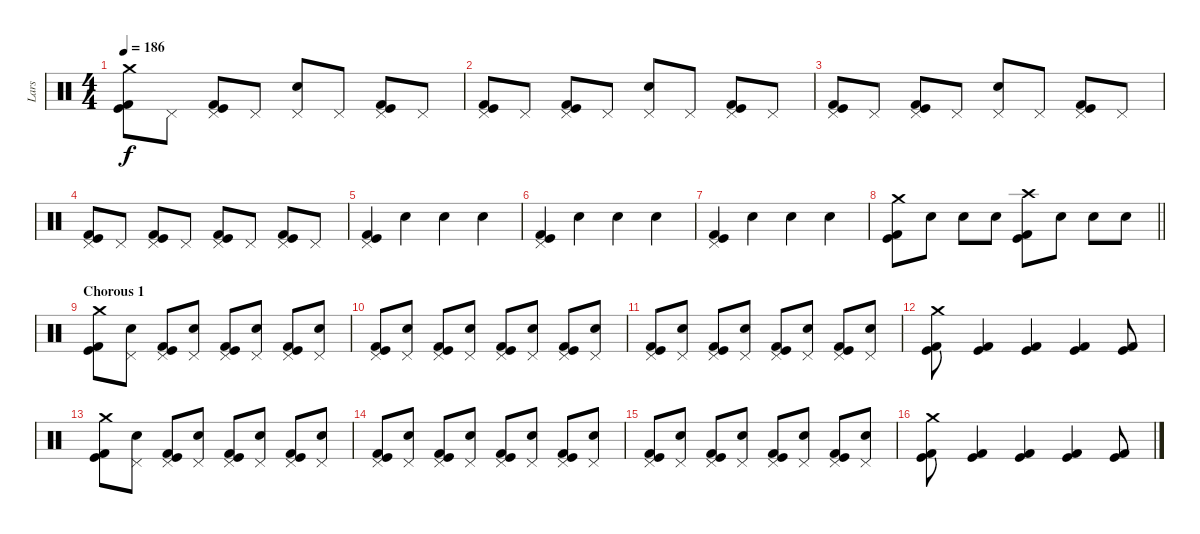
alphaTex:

\track ("Lars" "Lars") {instrument percussion}
\staff {score}
\articulation defaults
\ts (4 4)
\tempo 186
\clef neutral
\ks c
("Crash medium (hit)" "Kick (hit)" "Kick (hit) 2").8{dy f} "Pedal Hi-Hat (hit)".8 ("Pedal Hi-Hat (hit)" "Kick (hit)" "Kick (hit) 2").8 "Pedal Hi-Hat (hit)".8 ("Pedal Hi-Hat (hit)" "Electric Snare (hit)").8 "Pedal Hi-Hat (hit)".8 ("Pedal Hi-Hat (hit)" "Kick (hit)" "Kick (hit) 2").8 "Pedal Hi-Hat (hit)".8 |
("Pedal Hi-Hat (hit)" "Kick (hit)" "Kick (hit) 2").8 "Pedal Hi-Hat (hit)".8 ("Pedal Hi-Hat (hit)" "Kick (hit)" "Kick (hit) 2").8 "Pedal Hi-Hat (hit)".8 ("Pedal Hi-Hat (hit)" "Electric Snare (hit)").8 "Pedal Hi-Hat (hit)".8 ("Pedal Hi-Hat (hit)" "Kick (hit)" "Kick (hit) 2").8 "Pedal Hi-Hat (hit)".8 |
("Pedal Hi-Hat (hit)" "Kick (hit)" "Kick (hit) 2").8 "Pedal Hi-Hat (hit)".8 ("Pedal Hi-Hat (hit)" "Kick (hit)" "Kick (hit) 2").8 "Pedal Hi-Hat (hit)".8 ("Pedal Hi-Hat (hit)" "Electric Snare (hit)").8 "Pedal Hi-Hat (hit)".8 ("Pedal Hi-Hat (hit)" "Kick (hit)" "Kick (hit) 2").8 "Pedal Hi-Hat (hit)".8 |
("Pedal Hi-Hat (hit)" "Kick (hit)" "Kick (hit) 2").8 "Pedal Hi-Hat (hit)".8 ("Pedal Hi-Hat (hit)" "Kick (hit)" "Kick (hit) 2").8 "Pedal Hi-Hat (hit)".8 ("Pedal Hi-Hat (hit)" "Kick (hit)" "Kick (hit) 2").8 "Pedal Hi-Hat (hit)".8 ("Pedal Hi-Hat (hit)" "Kick (hit)" "Kick (hit) 2").8 "Pedal Hi-Hat (hit)".8 |
("Pedal Hi-Hat (hit)" "Kick (hit)" "Kick (hit) 2").4 "Electric Snare (hit)".4 "Electric Snare (hit)".4 "Electric Snare (hit)".4 |
("Pedal Hi-Hat (hit)" "Kick (hit)" "Kick (hit) 2").4 "Electric Snare (hit)".4 "Electric Snare (hit)".4 "Electric Snare (hit)".4 |
("Pedal Hi-Hat (hit)" "Kick (hit)" "Kick (hit) 2").4 "Electric Snare (hit)".4 "Electric Snare (hit)".4 "Electric Snare (hit)".4 |
\barLineRight lightlight
("Crash medium (hit)" "Kick (hit)" "Kick (hit) 2").8 "Electric Snare (hit)".8 "Electric Snare (hit)".8 "Electric Snare (hit)".8 ("Crash high (hit)" "Kick (hit)" "Kick (hit) 2").8 "Electric Snare (hit)".8 "Electric Snare (hit)".8 "Electric Snare (hit)".8 |
\section ("" "Chorous 1")
("Crash medium (hit)" "Kick (hit)" "Kick (hit) 2").8 ("Pedal Hi-Hat (hit)" "Electric Snare (hit)").8 ("Pedal Hi-Hat (hit)" "Kick (hit)" "Kick (hit) 2").8 ("Pedal Hi-Hat (hit)" "Electric Snare (hit)").8 ("Pedal Hi-Hat (hit)" "Kick (hit)" "Kick (hit) 2").8 ("Pedal Hi-Hat (hit)" "Electric Snare (hit)").8 ("Pedal Hi-Hat (hit)" "Kick (hit)" "Kick (hit) 2").8 ("Pedal Hi-Hat (hit)" "Electric Snare (hit)").8 |
("Pedal Hi-Hat (hit)" "Kick (hit)" "Kick (hit) 2").8 ("Pedal Hi-Hat (hit)" "Electric Snare (hit)").8 ("Pedal Hi-Hat (hit)" "Kick (hit)" "Kick (hit) 2").8 ("Pedal Hi-Hat (hit)" "Electric Snare (hit)").8 ("Pedal Hi-Hat (hit)" "Kick (hit)" "Kick (hit) 2").8 ("Pedal Hi-Hat (hit)" "Electric Snare (hit)").8 ("Pedal Hi-Hat (hit)" "Kick (hit)" "Kick (hit) 2").8 ("Pedal Hi-Hat (hit)" "Electric Snare (hit)").8 |
("Pedal Hi-Hat (hit)" "Kick (hit)" "Kick (hit) 2").8 ("Pedal Hi-Hat (hit)" "Electric Snare (hit)").8 ("Pedal Hi-Hat (hit)" "Kick (hit)" "Kick (hit) 2").8 ("Pedal Hi-Hat (hit)" "Electric Snare (hit)").8 ("Pedal Hi-Hat (hit)" "Kick (hit)" "Kick (hit) 2").8 ("Pedal Hi-Hat (hit)" "Electric Snare (hit)").8 ("Pedal Hi-Hat (hit)" "Kick (hit)" "Kick (hit) 2").8 ("Pedal Hi-Hat (hit)" "Electric Snare (hit)").8 |
("Crash medium (hit)" "Kick (hit)" "Kick (hit) 2").8 ("Kick (hit)" "Kick (hit) 2").4 ("Kick (hit)" "Kick (hit) 2").4 ("Kick (hit)" "Kick (hit) 2").4 ("Kick (hit)" "Kick (hit) 2").8 |
("Crash medium (hit)" "Kick (hit)" "Kick (hit) 2").8 ("Pedal Hi-Hat (hit)" "Electric Snare (hit)").8 ("Pedal Hi-Hat (hit)" "Kick (hit)" "Kick (hit) 2").8 ("Pedal Hi-Hat (hit)" "Electric Snare (hit)").8 ("Pedal Hi-Hat (hit)" "Kick (hit)" "Kick (hit) 2").8 ("Pedal Hi-Hat (hit)" "Electric Snare (hit)").8 ("Pedal Hi-Hat (hit)" "Kick (hit)" "Kick (hit) 2").8 ("Pedal Hi-Hat (hit)" "Electric Snare (hit)").8 |
("Pedal Hi-Hat (hit)" "Kick (hit)" "Kick (hit) 2").8 ("Pedal Hi-Hat (hit)" "Electric Snare (hit)").8 ("Pedal Hi-Hat (hit)" "Kick (hit)" "Kick (hit) 2").8 ("Pedal Hi-Hat (hit)" "Electric Snare (hit)").8 ("Pedal Hi-Hat (hit)" "Kick (hit)" "Kick (hit) 2").8 ("Pedal Hi-Hat (hit)" "Electric Snare (hit)").8 ("Pedal Hi-Hat (hit)" "Kick (hit)" "Kick (hit) 2").8 ("Pedal Hi-Hat (hit)" "Electric Snare (hit)").8 |
("Pedal Hi-Hat (hit)" "Kick (hit)" "Kick (hit) 2").8 ("Pedal Hi-Hat (hit)" "Electric Snare (hit)").8 ("Pedal Hi-Hat (hit)" "Kick (hit)" "Kick (hit) 2").8 ("Pedal Hi-Hat (hit)" "Electric Snare (hit)").8 ("Pedal Hi-Hat (hit)" "Kick (hit)" "Kick (hit) 2").8 ("Pedal Hi-Hat (hit)" "Electric Snare (hit)").8 ("Pedal Hi-Hat (hit)" "Kick (hit)" "Kick (hit) 2").8 ("Pedal Hi-Hat (hit)" "Electric Snare (hit)").8 |
("Crash medium (hit)" "Kick (hit)" "Kick (hit) 2").8 ("Kick (hit)" "Kick (hit) 2").4 ("Kick (hit)" "Kick (hit) 2").4 ("Kick (hit)" "Kick (hit) 2").4 ("Kick (hit)" "Kick (hit) 2").8
